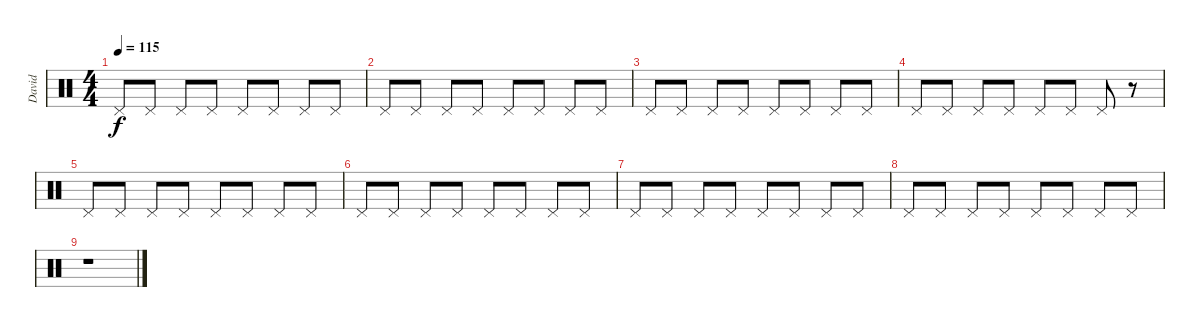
\track ("David" "David") {instrument percussion}
\staff {score}
\articulation defaults
\ts (4 4)
\tempo 115
\clef neutral
\ks c "Pedal Hi-Hat (hit)".8{dy f} "Pedal Hi-Hat (hit)".8 "Pedal Hi-Hat (hit)".8 "Pedal Hi-Hat (hit)".8 "Pedal Hi-Hat (hit)".8 "Pedal Hi-Hat (hit)".8 "Pedal Hi-Hat (hit)".8 "Pedal Hi-Hat (hit)".8
|
"Pedal Hi-Hat (hit)".8 "Pedal Hi-Hat (hit)".8 "Pedal Hi-Hat (hit)".8 "Pedal Hi-Hat (hit)".8 "Pedal Hi-Hat (hit)".8 "Pedal Hi-Hat (hit)".8 "Pedal Hi-Hat (hit)".8 "Pedal Hi-Hat (hit)".8 |
"Pedal Hi-Hat (hit)".8 "Pedal Hi-Hat (hit)".8 "Pedal Hi-Hat (hit)".8 "Pedal Hi-Hat (hit)".8 "Pedal Hi-Hat (hit)".8 "Pedal Hi-Hat (hit)".8 "Pedal Hi-Hat (hit)".8 "Pedal Hi-Hat (hit)".8 |
"Pedal Hi-Hat (hit)".8 "Pedal Hi-Hat (hit)".8 "Pedal Hi-Hat (hit)".8 "Pedal Hi-Hat (hit)".8 "Pedal Hi-Hat (hit)".8 "Pedal Hi-Hat (hit)".8 "Pedal Hi-Hat (hit)".8 r.8 |
"Pedal Hi-Hat (hit)".8 "Pedal Hi-Hat (hit)".8 "Pedal Hi-Hat (hit)".8 "Pedal Hi-Hat (hit)".8 "Pedal Hi-Hat (hit)".8 "Pedal Hi-Hat (hit)".8 "Pedal Hi-Hat (hit)".8 "Pedal Hi-Hat (hit)".8 |
"Pedal Hi-Hat (hit)".8 "Pedal Hi-Hat (hit)".8 "Pedal Hi-Hat (hit)".8 "Pedal Hi-Hat (hit)".8 "Pedal Hi-Hat (hit)".8 "Pedal Hi-Hat (hit)".8 "Pedal Hi-Hat (hit)".8 "Pedal Hi-Hat (hit)".8 |
"Pedal Hi-Hat (hit)".8 "Pedal Hi-Hat (hit)".8 "Pedal Hi-Hat (hit)".8 "Pedal Hi-Hat (hit)".8 "Pedal Hi-Hat (hit)".8 "Pedal Hi-Hat (hit)".8 "Pedal Hi-Hat (hit)".8 "Pedal Hi-Hat (hit)".8 |
"Pedal Hi-Hat (hit)".8 "Pedal Hi-Hat (hit)".8 "Pedal Hi-Hat (hit)".8 "Pedal Hi-Hat (hit)".8 "Pedal Hi-Hat (hit)".8 "Pedal Hi-Hat (hit)".8 "Pedal Hi-Hat (hit)".8 "Pedal Hi-Hat (hit)".8 |
r.1
